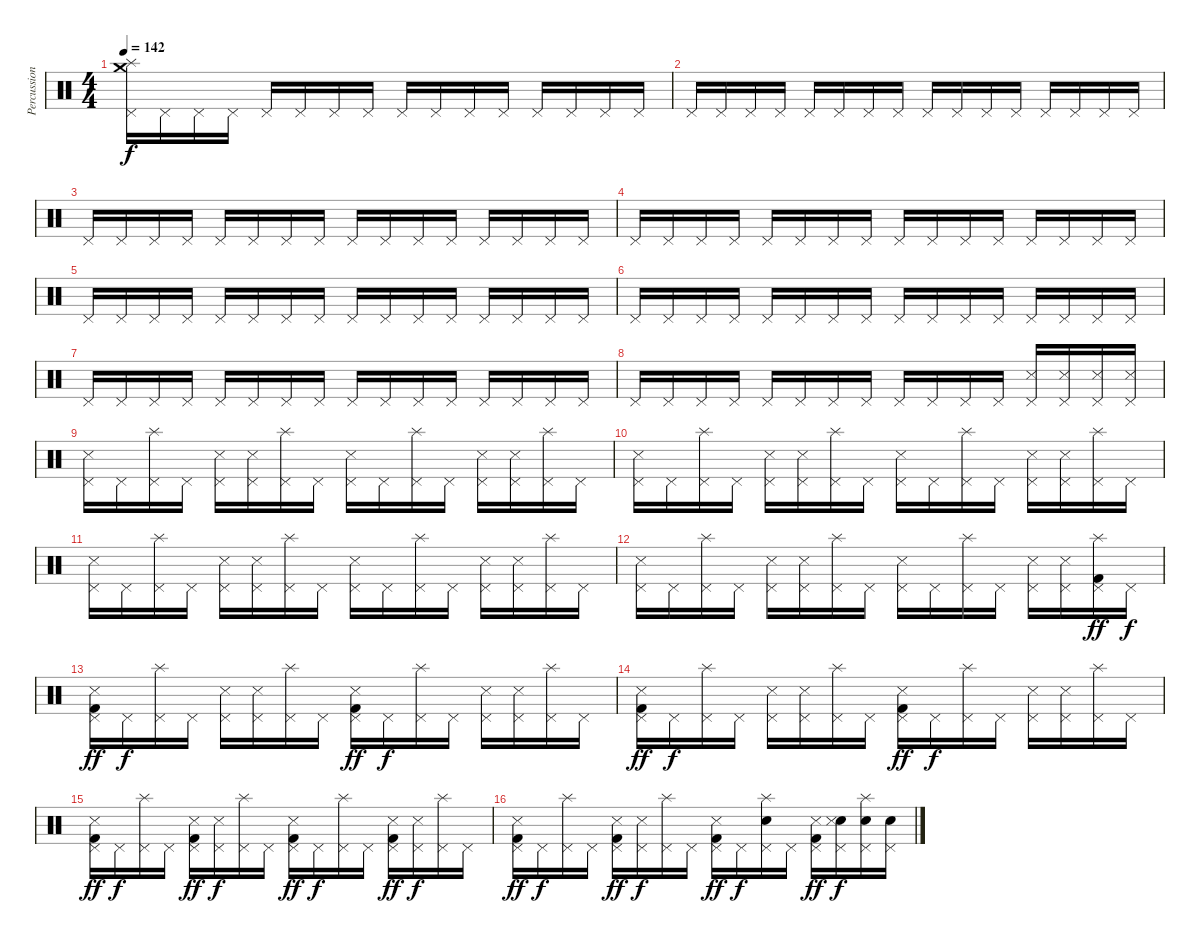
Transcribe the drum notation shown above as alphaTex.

\track ("Percussion" "Percussion") {instrument percussion}
\staff {score}
\articulation defaults
\ts (4 4)
\tempo 142
\clef neutral
\ks c
("Splash (hit)" "Crash medium (hit)" "Pedal Hi-Hat (hit)").16{dy f} "Pedal Hi-Hat (hit)".16 "Pedal Hi-Hat (hit)".16 "Pedal Hi-Hat (hit)".16 "Pedal Hi-Hat (hit)".16 "Pedal Hi-Hat (hit)".16 "Pedal Hi-Hat (hit)".16 "Pedal Hi-Hat (hit)".16 "Pedal Hi-Hat (hit)".16 "Pedal Hi-Hat (hit)".16 "Pedal Hi-Hat (hit)".16 "Pedal Hi-Hat (hit)".16 "Pedal Hi-Hat (hit)".16 "Pedal Hi-Hat (hit)".16 "Pedal Hi-Hat (hit)".16 "Pedal Hi-Hat (hit)".16 |
"Pedal Hi-Hat (hit)".16 "Pedal Hi-Hat (hit)".16 "Pedal Hi-Hat (hit)".16 "Pedal Hi-Hat (hit)".16 "Pedal Hi-Hat (hit)".16 "Pedal Hi-Hat (hit)".16 "Pedal Hi-Hat (hit)".16 "Pedal Hi-Hat (hit)".16 "Pedal Hi-Hat (hit)".16 "Pedal Hi-Hat (hit)".16 "Pedal Hi-Hat (hit)".16 "Pedal Hi-Hat (hit)".16 "Pedal Hi-Hat (hit)".16 "Pedal Hi-Hat (hit)".16 "Pedal Hi-Hat (hit)".16 "Pedal Hi-Hat (hit)".16 |
"Pedal Hi-Hat (hit)".16 "Pedal Hi-Hat (hit)".16 "Pedal Hi-Hat (hit)".16 "Pedal Hi-Hat (hit)".16 "Pedal Hi-Hat (hit)".16 "Pedal Hi-Hat (hit)".16 "Pedal Hi-Hat (hit)".16 "Pedal Hi-Hat (hit)".16 "Pedal Hi-Hat (hit)".16 "Pedal Hi-Hat (hit)".16 "Pedal Hi-Hat (hit)".16 "Pedal Hi-Hat (hit)".16 "Pedal Hi-Hat (hit)".16 "Pedal Hi-Hat (hit)".16 "Pedal Hi-Hat (hit)".16 "Pedal Hi-Hat (hit)".16 |
"Pedal Hi-Hat (hit)".16 "Pedal Hi-Hat (hit)".16 "Pedal Hi-Hat (hit)".16 "Pedal Hi-Hat (hit)".16 "Pedal Hi-Hat (hit)".16 "Pedal Hi-Hat (hit)".16 "Pedal Hi-Hat (hit)".16 "Pedal Hi-Hat (hit)".16 "Pedal Hi-Hat (hit)".16 "Pedal Hi-Hat (hit)".16 "Pedal Hi-Hat (hit)".16 "Pedal Hi-Hat (hit)".16 "Pedal Hi-Hat (hit)".16 "Pedal Hi-Hat (hit)".16 "Pedal Hi-Hat (hit)".16 "Pedal Hi-Hat (hit)".16 |
"Pedal Hi-Hat (hit)".16 "Pedal Hi-Hat (hit)".16 "Pedal Hi-Hat (hit)".16 "Pedal Hi-Hat (hit)".16 "Pedal Hi-Hat (hit)".16 "Pedal Hi-Hat (hit)".16 "Pedal Hi-Hat (hit)".16 "Pedal Hi-Hat (hit)".16 "Pedal Hi-Hat (hit)".16 "Pedal Hi-Hat (hit)".16 "Pedal Hi-Hat (hit)".16 "Pedal Hi-Hat (hit)".16 "Pedal Hi-Hat (hit)".16 "Pedal Hi-Hat (hit)".16 "Pedal Hi-Hat (hit)".16 "Pedal Hi-Hat (hit)".16 |
"Pedal Hi-Hat (hit)".16 "Pedal Hi-Hat (hit)".16 "Pedal Hi-Hat (hit)".16 "Pedal Hi-Hat (hit)".16 "Pedal Hi-Hat (hit)".16 "Pedal Hi-Hat (hit)".16 "Pedal Hi-Hat (hit)".16 "Pedal Hi-Hat (hit)".16 "Pedal Hi-Hat (hit)".16 "Pedal Hi-Hat (hit)".16 "Pedal Hi-Hat (hit)".16 "Pedal Hi-Hat (hit)".16 "Pedal Hi-Hat (hit)".16 "Pedal Hi-Hat (hit)".16 "Pedal Hi-Hat (hit)".16 "Pedal Hi-Hat (hit)".16 |
"Pedal Hi-Hat (hit)".16 "Pedal Hi-Hat (hit)".16 "Pedal Hi-Hat (hit)".16 "Pedal Hi-Hat (hit)".16 "Pedal Hi-Hat (hit)".16 "Pedal Hi-Hat (hit)".16 "Pedal Hi-Hat (hit)".16 "Pedal Hi-Hat (hit)".16 "Pedal Hi-Hat (hit)".16 "Pedal Hi-Hat (hit)".16 "Pedal Hi-Hat (hit)".16 "Pedal Hi-Hat (hit)".16 "Pedal Hi-Hat (hit)".16 "Pedal Hi-Hat (hit)".16 "Pedal Hi-Hat (hit)".16 "Pedal Hi-Hat (hit)".16 |
"Pedal Hi-Hat (hit)".16 "Pedal Hi-Hat (hit)".16 "Pedal Hi-Hat (hit)".16 "Pedal Hi-Hat (hit)".16 "Pedal Hi-Hat (hit)".16 "Pedal Hi-Hat (hit)".16 "Pedal Hi-Hat (hit)".16 "Pedal Hi-Hat (hit)".16 "Pedal Hi-Hat (hit)".16 "Pedal Hi-Hat (hit)".16 "Pedal Hi-Hat (hit)".16 "Pedal Hi-Hat (hit)".16 ("Metronome (hit)" "Pedal Hi-Hat (hit)").16 ("Metronome (hit)" "Pedal Hi-Hat (hit)").16 ("Metronome (hit)" "Pedal Hi-Hat (hit)").16 ("Metronome (hit)" "Pedal Hi-Hat (hit)").16 |
("Metronome (hit)" "Pedal Hi-Hat (hit)").16 "Pedal Hi-Hat (hit)".16 ("Splash (hit)" "Pedal Hi-Hat (hit)").16 "Pedal Hi-Hat (hit)".16 ("Metronome (hit)" "Pedal Hi-Hat (hit)").16 ("Metronome (hit)" "Pedal Hi-Hat (hit)").16 ("Splash (hit)" "Pedal Hi-Hat (hit)").16 "Pedal Hi-Hat (hit)".16 ("Metronome (hit)" "Pedal Hi-Hat (hit)").16 "Pedal Hi-Hat (hit)".16 ("Splash (hit)" "Pedal Hi-Hat (hit)").16 "Pedal Hi-Hat (hit)".16 ("Metronome (hit)" "Pedal Hi-Hat (hit)").16 ("Metronome (hit)" "Pedal Hi-Hat (hit)").16 ("Splash (hit)" "Pedal Hi-Hat (hit)").16 "Pedal Hi-Hat (hit)".16 |
("Metronome (hit)" "Pedal Hi-Hat (hit)").16 "Pedal Hi-Hat (hit)".16 ("Splash (hit)" "Pedal Hi-Hat (hit)").16 "Pedal Hi-Hat (hit)".16 ("Metronome (hit)" "Pedal Hi-Hat (hit)").16 ("Metronome (hit)" "Pedal Hi-Hat (hit)").16 ("Splash (hit)" "Pedal Hi-Hat (hit)").16 "Pedal Hi-Hat (hit)".16 ("Metronome (hit)" "Pedal Hi-Hat (hit)").16 "Pedal Hi-Hat (hit)".16 ("Splash (hit)" "Pedal Hi-Hat (hit)").16 "Pedal Hi-Hat (hit)".16 ("Metronome (hit)" "Pedal Hi-Hat (hit)").16 ("Metronome (hit)" "Pedal Hi-Hat (hit)").16 ("Splash (hit)" "Pedal Hi-Hat (hit)").16 "Pedal Hi-Hat (hit)".16 |
("Metronome (hit)" "Pedal Hi-Hat (hit)").16 "Pedal Hi-Hat (hit)".16 ("Splash (hit)" "Pedal Hi-Hat (hit)").16 "Pedal Hi-Hat (hit)".16 ("Metronome (hit)" "Pedal Hi-Hat (hit)").16 ("Metronome (hit)" "Pedal Hi-Hat (hit)").16 ("Splash (hit)" "Pedal Hi-Hat (hit)").16 "Pedal Hi-Hat (hit)".16 ("Metronome (hit)" "Pedal Hi-Hat (hit)").16 "Pedal Hi-Hat (hit)".16 ("Splash (hit)" "Pedal Hi-Hat (hit)").16 "Pedal Hi-Hat (hit)".16 ("Metronome (hit)" "Pedal Hi-Hat (hit)").16 ("Metronome (hit)" "Pedal Hi-Hat (hit)").16 ("Splash (hit)" "Pedal Hi-Hat (hit)").16 "Pedal Hi-Hat (hit)".16 |
("Metronome (hit)" "Pedal Hi-Hat (hit)").16 "Pedal Hi-Hat (hit)".16 ("Splash (hit)" "Pedal Hi-Hat (hit)").16 "Pedal Hi-Hat (hit)".16 ("Metronome (hit)" "Pedal Hi-Hat (hit)").16 ("Metronome (hit)" "Pedal Hi-Hat (hit)").16 ("Splash (hit)" "Pedal Hi-Hat (hit)").16 "Pedal Hi-Hat (hit)".16 ("Metronome (hit)" "Pedal Hi-Hat (hit)").16 "Pedal Hi-Hat (hit)".16 ("Splash (hit)" "Pedal Hi-Hat (hit)").16 "Pedal Hi-Hat (hit)".16 ("Metronome (hit)" "Pedal Hi-Hat (hit)").16 ("Metronome (hit)" "Pedal Hi-Hat (hit)").16 ("Kick (hit) 2" "Splash (hit)" "Pedal Hi-Hat (hit)").16{dy ff} "Pedal Hi-Hat (hit)".16{dy f} |
("Kick (hit) 2" "Metronome (hit)" "Pedal Hi-Hat (hit)").16{dy ff} "Pedal Hi-Hat (hit)".16{dy f} ("Splash (hit)" "Pedal Hi-Hat (hit)").16 "Pedal Hi-Hat (hit)".16 ("Metronome (hit)" "Pedal Hi-Hat (hit)").16 ("Metronome (hit)" "Pedal Hi-Hat (hit)").16 ("Splash (hit)" "Pedal Hi-Hat (hit)").16 "Pedal Hi-Hat (hit)".16 ("Kick (hit) 2" "Metronome (hit)" "Pedal Hi-Hat (hit)").16{dy ff} "Pedal Hi-Hat (hit)".16{dy f} ("Splash (hit)" "Pedal Hi-Hat (hit)").16 "Pedal Hi-Hat (hit)".16 ("Metronome (hit)" "Pedal Hi-Hat (hit)").16 ("Metronome (hit)" "Pedal Hi-Hat (hit)").16 ("Splash (hit)" "Pedal Hi-Hat (hit)").16 "Pedal Hi-Hat (hit)".16 |
("Kick (hit) 2" "Metronome (hit)" "Pedal Hi-Hat (hit)").16{dy ff} "Pedal Hi-Hat (hit)".16{dy f} ("Splash (hit)" "Pedal Hi-Hat (hit)").16 "Pedal Hi-Hat (hit)".16 ("Metronome (hit)" "Pedal Hi-Hat (hit)").16 ("Metronome (hit)" "Pedal Hi-Hat (hit)").16 ("Splash (hit)" "Pedal Hi-Hat (hit)").16 "Pedal Hi-Hat (hit)".16 ("Kick (hit) 2" "Metronome (hit)" "Pedal Hi-Hat (hit)").16{dy ff} "Pedal Hi-Hat (hit)".16{dy f} ("Splash (hit)" "Pedal Hi-Hat (hit)").16 "Pedal Hi-Hat (hit)".16 ("Metronome (hit)" "Pedal Hi-Hat (hit)").16 ("Metronome (hit)" "Pedal Hi-Hat (hit)").16 ("Splash (hit)" "Pedal Hi-Hat (hit)").16 "Pedal Hi-Hat (hit)".16 |
("Kick (hit) 2" "Metronome (hit)" "Pedal Hi-Hat (hit)").16{dy ff} "Pedal Hi-Hat (hit)".16{dy f} ("Splash (hit)" "Pedal Hi-Hat (hit)").16 "Pedal Hi-Hat (hit)".16 ("Kick (hit) 2" "Metronome (hit)" "Pedal Hi-Hat (hit)").16{dy ff} ("Metronome (hit)" "Pedal Hi-Hat (hit)").16{dy f} ("Splash (hit)" "Pedal Hi-Hat (hit)").16 "Pedal Hi-Hat (hit)".16 ("Kick (hit) 2" "Metronome (hit)" "Pedal Hi-Hat (hit)").16{dy ff} "Pedal Hi-Hat (hit)".16{dy f} ("Splash (hit)" "Pedal Hi-Hat (hit)").16 "Pedal Hi-Hat (hit)".16 ("Kick (hit) 2" "Metronome (hit)" "Pedal Hi-Hat (hit)").16{dy ff} ("Metronome (hit)" "Pedal Hi-Hat (hit)").16{dy f} ("Splash (hit)" "Pedal Hi-Hat (hit)").16 "Pedal Hi-Hat (hit)".16 |
("Kick (hit) 2" "Metronome (hit)" "Pedal Hi-Hat (hit)").16{dy ff} "Pedal Hi-Hat (hit)".16{dy f} ("Splash (hit)" "Pedal Hi-Hat (hit)").16 "Pedal Hi-Hat (hit)".16 ("Kick (hit) 2" "Metronome (hit)" "Pedal Hi-Hat (hit)").16{dy ff} ("Metronome (hit)" "Pedal Hi-Hat (hit)").16{dy f} ("Splash (hit)" "Pedal Hi-Hat (hit)").16 "Pedal Hi-Hat (hit)".16 ("Kick (hit) 2" "Metronome (hit)" "Pedal Hi-Hat (hit)").16{dy ff} "Pedal Hi-Hat (hit)".16{dy f} ("Electric Snare (hit)" "Splash (hit)" "Pedal Hi-Hat (hit)").16 "Pedal Hi-Hat (hit)".16 ("Kick (hit) 2" "Metronome (hit)" "Pedal Hi-Hat (hit)").16{dy ff} ("Electric Snare (hit)" "Metronome (hit)" "Pedal Hi-Hat (hit)").16{dy f} ("Electric Snare (hit)" "Splash (hit)" "Pedal Hi-Hat (hit)").16 ("Electric Snare (hit)" "Pedal Hi-Hat (hit)").16
